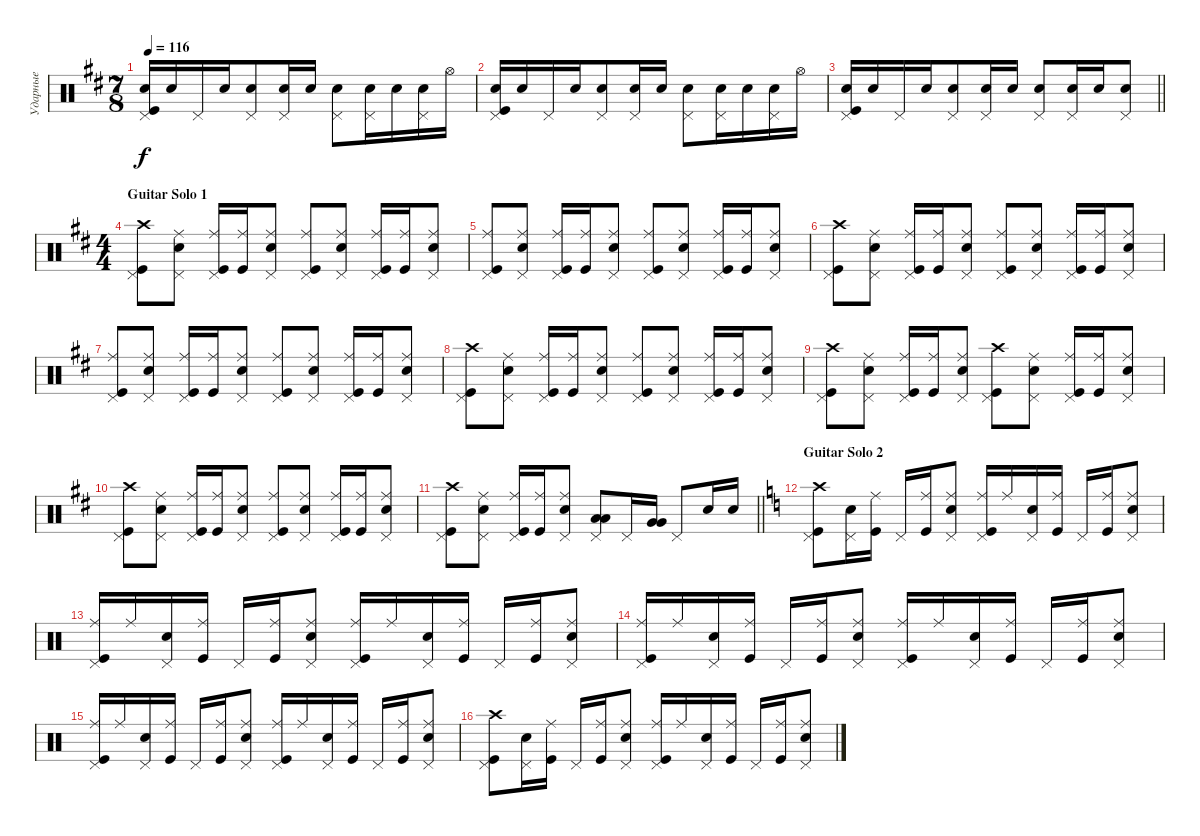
\track ("Ударные" "Ударные") {instrument percussion}
\staff {score}
\articulation defaults
\ts (7 8)
\tempo 116
\clef neutral
\ks bminor
("Pedal Hi-Hat (hit)" "Snare (hit) 2" "Kick (hit)").16{dy f} "Snare (hit) 2".16 "Pedal Hi-Hat (hit)".16 "Snare (hit) 2".16 ("Snare (hit) 2" "Pedal Hi-Hat (hit)").8 ("Snare (hit) 2" "Pedal Hi-Hat (hit)").16 "Snare (hit) 2".16 ("Snare (hit) 2" "Pedal Hi-Hat (hit)").8 ("Snare (hit) 2" "Pedal Hi-Hat (hit)").16 "Snare (hit) 2".16 ("Snare (hit) 2" "Pedal Hi-Hat (hit)").16 "Hi-Hat (open)".16 |
("Pedal Hi-Hat (hit)" "Snare (hit) 2" "Kick (hit)").16 "Snare (hit) 2".16 "Pedal Hi-Hat (hit)".16 "Snare (hit) 2".16 ("Snare (hit) 2" "Pedal Hi-Hat (hit)").8 ("Snare (hit) 2" "Pedal Hi-Hat (hit)").16 "Snare (hit) 2".16 ("Snare (hit) 2" "Pedal Hi-Hat (hit)").8 ("Snare (hit) 2" "Pedal Hi-Hat (hit)").16 "Snare (hit) 2".16 ("Snare (hit) 2" "Pedal Hi-Hat (hit)").16 "Hi-Hat (open)".16 |
\barLineRight lightlight
("Pedal Hi-Hat (hit)" "Snare (hit) 2" "Kick (hit)").16 "Snare (hit) 2".16 "Pedal Hi-Hat (hit)".16 "Snare (hit) 2".16 ("Snare (hit) 2" "Pedal Hi-Hat (hit)").8 ("Snare (hit) 2" "Pedal Hi-Hat (hit)").16 "Snare (hit) 2".16 ("Snare (hit) 2" "Pedal Hi-Hat (hit)").8 ("Snare (hit) 2" "Pedal Hi-Hat (hit)").16 "Snare (hit) 2".16 ("Snare (hit) 2" "Pedal Hi-Hat (hit)").8 |
\ts (4 4)
\section ("" "Guitar Solo 1")
("Kick (hit)" "Crash high (hit)" "Pedal Hi-Hat (hit)").8 ("Snare (hit) 2" "Pedal Hi-Hat (hit)" "Ride (middle)").8 ("Pedal Hi-Hat (hit)" "Kick (hit)" "Ride (middle)").16 ("Kick (hit)" "Ride (middle)").16 ("Snare (hit) 2" "Pedal Hi-Hat (hit)" "Ride (middle)").8 ("Kick (hit)" "Pedal Hi-Hat (hit)" "Ride (middle)").8 ("Snare (hit) 2" "Pedal Hi-Hat (hit)" "Ride (middle)").8 ("Kick (hit)" "Pedal Hi-Hat (hit)" "Ride (middle)").16 ("Kick (hit)" "Ride (middle)").16 ("Snare (hit) 2" "Pedal Hi-Hat (hit)" "Ride (middle)").8 |
("Kick (hit)" "Ride (middle)" "Pedal Hi-Hat (hit)").8 ("Snare (hit) 2" "Pedal Hi-Hat (hit)" "Ride (middle)").8 ("Pedal Hi-Hat (hit)" "Kick (hit)" "Ride (middle)").16 ("Kick (hit)" "Ride (middle)").16 ("Snare (hit) 2" "Pedal Hi-Hat (hit)" "Ride (middle)").8 ("Kick (hit)" "Pedal Hi-Hat (hit)" "Ride (middle)").8 ("Snare (hit) 2" "Pedal Hi-Hat (hit)" "Ride (middle)").8 ("Kick (hit)" "Pedal Hi-Hat (hit)" "Ride (middle)").16 ("Kick (hit)" "Ride (middle)").16 ("Snare (hit) 2" "Pedal Hi-Hat (hit)" "Ride (middle)").8 |
("Kick (hit)" "Crash high (hit)" "Pedal Hi-Hat (hit)").8 ("Snare (hit) 2" "Pedal Hi-Hat (hit)" "Ride (middle)").8 ("Pedal Hi-Hat (hit)" "Kick (hit)" "Ride (middle)").16 ("Kick (hit)" "Ride (middle)").16 ("Snare (hit) 2" "Pedal Hi-Hat (hit)" "Ride (middle)").8 ("Kick (hit)" "Pedal Hi-Hat (hit)" "Ride (middle)").8 ("Snare (hit) 2" "Pedal Hi-Hat (hit)" "Ride (middle)").8 ("Kick (hit)" "Pedal Hi-Hat (hit)" "Ride (middle)").16 ("Kick (hit)" "Ride (middle)").16 ("Snare (hit) 2" "Pedal Hi-Hat (hit)" "Ride (middle)").8 |
("Kick (hit)" "Ride (middle)" "Pedal Hi-Hat (hit)").8 ("Snare (hit) 2" "Pedal Hi-Hat (hit)" "Ride (middle)").8 ("Pedal Hi-Hat (hit)" "Kick (hit)" "Ride (middle)").16 ("Kick (hit)" "Ride (middle)").16 ("Snare (hit) 2" "Pedal Hi-Hat (hit)" "Ride (middle)").8 ("Kick (hit)" "Pedal Hi-Hat (hit)" "Ride (middle)").8 ("Snare (hit) 2" "Pedal Hi-Hat (hit)" "Ride (middle)").8 ("Kick (hit)" "Pedal Hi-Hat (hit)" "Ride (middle)").16 ("Kick (hit)" "Ride (middle)").16 ("Snare (hit) 2" "Pedal Hi-Hat (hit)" "Ride (middle)").8 |
("Kick (hit)" "Crash high (hit)" "Pedal Hi-Hat (hit)").8 ("Snare (hit) 2" "Pedal Hi-Hat (hit)" "Ride (middle)").8 ("Pedal Hi-Hat (hit)" "Kick (hit)" "Ride (middle)").16 ("Kick (hit)" "Ride (middle)").16 ("Snare (hit) 2" "Pedal Hi-Hat (hit)" "Ride (middle)").8 ("Kick (hit)" "Pedal Hi-Hat (hit)" "Ride (middle)").8 ("Snare (hit) 2" "Pedal Hi-Hat (hit)" "Ride (middle)").8 ("Kick (hit)" "Pedal Hi-Hat (hit)" "Ride (middle)").16 ("Kick (hit)" "Ride (middle)").16 ("Snare (hit) 2" "Pedal Hi-Hat (hit)" "Ride (middle)").8 |
("Kick (hit)" "Crash high (hit)" "Pedal Hi-Hat (hit)").8 ("Snare (hit) 2" "Pedal Hi-Hat (hit)" "Ride (middle)").8 ("Pedal Hi-Hat (hit)" "Kick (hit)" "Ride (middle)").16 ("Kick (hit)" "Ride (middle)").16 ("Snare (hit) 2" "Pedal Hi-Hat (hit)" "Ride (middle)").8 ("Kick (hit)" "Pedal Hi-Hat (hit)" "Crash high (hit)").8 ("Snare (hit) 2" "Pedal Hi-Hat (hit)" "Ride (middle)").8 ("Kick (hit)" "Pedal Hi-Hat (hit)" "Ride (middle)").16 ("Kick (hit)" "Ride (middle)").16 ("Snare (hit) 2" "Pedal Hi-Hat (hit)" "Ride (middle)").8 |
("Kick (hit)" "Crash high (hit)" "Pedal Hi-Hat (hit)").8 ("Snare (hit) 2" "Pedal Hi-Hat (hit)" "Ride (middle)").8 ("Pedal Hi-Hat (hit)" "Kick (hit)" "Ride (middle)").16 ("Kick (hit)" "Ride (middle)").16 ("Snare (hit) 2" "Pedal Hi-Hat (hit)" "Ride (middle)").8 ("Kick (hit)" "Pedal Hi-Hat (hit)" "Ride (middle)").8 ("Snare (hit) 2" "Pedal Hi-Hat (hit)" "Ride (middle)").8 ("Kick (hit)" "Pedal Hi-Hat (hit)" "Ride (middle)").16 ("Kick (hit)" "Ride (middle)").16 ("Snare (hit) 2" "Pedal Hi-Hat (hit)" "Ride (middle)").8 |
\barLineRight lightlight
("Kick (hit)" "Crash high (hit)" "Pedal Hi-Hat (hit)").8 ("Snare (hit) 2" "Pedal Hi-Hat (hit)" "Ride (middle)").8 ("Pedal Hi-Hat (hit)" "Kick (hit)" "Ride (middle)").16 ("Kick (hit)" "Ride (middle)").16 ("Snare (hit) 2" "Pedal Hi-Hat (hit)" "Ride (middle)").8 ("Pedal Hi-Hat (hit)" "Low Tom (hit)" "Low Tom (hit)").8{bd 240} "Pedal Hi-Hat (hit)".16 ("Very Low Tom (hit)" "Very Low Tom (hit)").16{bd 480} "Pedal Hi-Hat (hit)".8 "Snare (hit) 2".16 "Snare (hit) 2".16 |
\section ("" "Guitar Solo 2")
\ks aminor
("Kick (hit)" "Crash high (hit)" "Pedal Hi-Hat (hit)").8 ("Snare (hit) 2" "Pedal Hi-Hat (hit)").16 ("Kick (hit)" "Ride (middle)").16 "Pedal Hi-Hat (hit)".16 ("Ride (middle)" "Kick (hit)").16 ("Snare (hit) 2" "Ride (middle)" "Pedal Hi-Hat (hit)").8 ("Kick (hit)" "Ride (middle)" "Pedal Hi-Hat (hit)").16 "Ride (middle)".16 ("Snare (hit) 2" "Pedal Hi-Hat (hit)").16 ("Kick (hit)" "Ride (middle)").16 "Pedal Hi-Hat (hit)".16 ("Ride (middle)" "Kick (hit)").16 ("Ride (middle)" "Snare (hit) 2" "Pedal Hi-Hat (hit)").8 |
("Kick (hit)" "Ride (middle)" "Pedal Hi-Hat (hit)").16 "Ride (middle)".16 ("Snare (hit) 2" "Pedal Hi-Hat (hit)").16 ("Kick (hit)" "Ride (middle)").16 "Pedal Hi-Hat (hit)".16 ("Ride (middle)" "Kick (hit)").16 ("Snare (hit) 2" "Ride (middle)" "Pedal Hi-Hat (hit)").8 ("Kick (hit)" "Ride (middle)" "Pedal Hi-Hat (hit)").16 "Ride (middle)".16 ("Snare (hit) 2" "Pedal Hi-Hat (hit)").16 ("Kick (hit)" "Ride (middle)").16 "Pedal Hi-Hat (hit)".16 ("Ride (middle)" "Kick (hit)").16 ("Ride (middle)" "Snare (hit) 2" "Pedal Hi-Hat (hit)").8 |
("Kick (hit)" "Ride (middle)" "Pedal Hi-Hat (hit)").16 "Ride (middle)".16 ("Snare (hit) 2" "Pedal Hi-Hat (hit)").16 ("Kick (hit)" "Ride (middle)").16 "Pedal Hi-Hat (hit)".16 ("Ride (middle)" "Kick (hit)").16 ("Snare (hit) 2" "Ride (middle)" "Pedal Hi-Hat (hit)").8 ("Kick (hit)" "Ride (middle)" "Pedal Hi-Hat (hit)").16 "Ride (middle)".16 ("Snare (hit) 2" "Pedal Hi-Hat (hit)").16 ("Kick (hit)" "Ride (middle)").16 "Pedal Hi-Hat (hit)".16 ("Ride (middle)" "Kick (hit)").16 ("Ride (middle)" "Snare (hit) 2" "Pedal Hi-Hat (hit)").8 |
("Kick (hit)" "Ride (middle)" "Pedal Hi-Hat (hit)").16 "Ride (middle)".16 ("Snare (hit) 2" "Pedal Hi-Hat (hit)").16 ("Kick (hit)" "Ride (middle)").16 "Pedal Hi-Hat (hit)".16 ("Ride (middle)" "Kick (hit)").16 ("Snare (hit) 2" "Ride (middle)" "Pedal Hi-Hat (hit)").8 ("Kick (hit)" "Ride (middle)" "Pedal Hi-Hat (hit)").16 "Ride (middle)".16 ("Snare (hit) 2" "Pedal Hi-Hat (hit)").16 ("Kick (hit)" "Ride (middle)").16 "Pedal Hi-Hat (hit)".16 ("Ride (middle)" "Kick (hit)").16 ("Ride (middle)" "Snare (hit) 2" "Pedal Hi-Hat (hit)").8 |
("Kick (hit)" "Crash high (hit)" "Pedal Hi-Hat (hit)").8 ("Snare (hit) 2" "Pedal Hi-Hat (hit)").16 ("Kick (hit)" "Ride (middle)").16 "Pedal Hi-Hat (hit)".16 ("Ride (middle)" "Kick (hit)").16 ("Snare (hit) 2" "Ride (middle)" "Pedal Hi-Hat (hit)").8 ("Kick (hit)" "Ride (middle)" "Pedal Hi-Hat (hit)").16 "Ride (middle)".16 ("Snare (hit) 2" "Pedal Hi-Hat (hit)").16 ("Kick (hit)" "Ride (middle)").16 "Pedal Hi-Hat (hit)".16 ("Ride (middle)" "Kick (hit)").16 ("Ride (middle)" "Snare (hit) 2" "Pedal Hi-Hat (hit)").8
